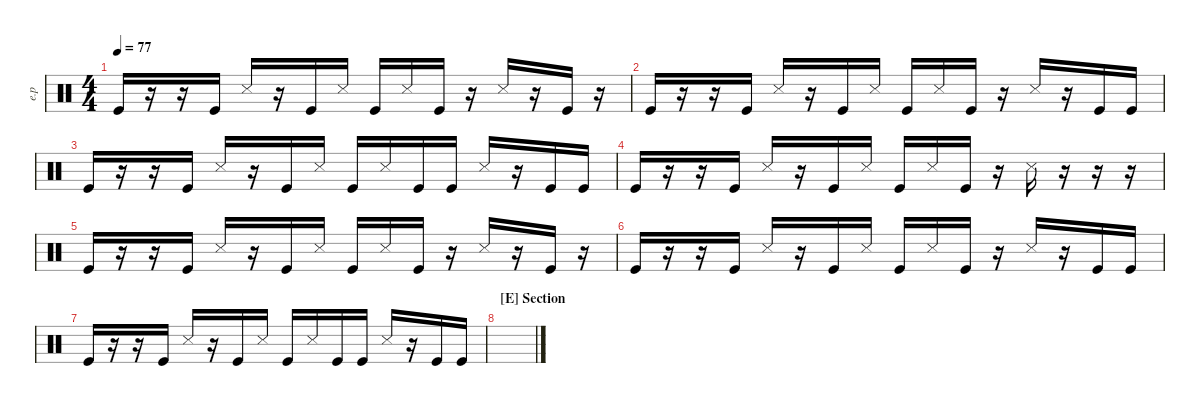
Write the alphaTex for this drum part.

\defaultSystemsLayout 4
\hideDynamics
\bracketExtendMode nobrackets
\otherSystemsTrackNameOrientation horizontal
\track ("Electric Percussion" "e.p") {instrument percussion}
\staff {score}
\articulation defaults
\ts (4 4)
\tempo 77
\clef neutral
\ks c "Kick (hit)".16{dy mf}
r.16 r.16 "Kick (hit)".16 "Snare (side stick) 3".16 r.16 "Kick (hit)".16 "Snare (side stick) 3".16 "Kick (hit)".16 "Snare (side stick) 3".16 "Kick (hit)".16 r.16 "Snare (side stick) 3".16 r.16 "Kick (hit)".16 r.16 |
"Kick (hit)".16 r.16 r.16 "Kick (hit)".16 "Snare (side stick) 3".16 r.16 "Kick (hit)".16 "Snare (side stick) 3".16 "Kick (hit)".16 "Snare (side stick) 3".16 "Kick (hit)".16 r.16 "Snare (side stick) 3".16 r.16 "Kick (hit)".16 "Kick (hit)".16 |
"Kick (hit)".16 r.16 r.16 "Kick (hit)".16 "Snare (side stick) 3".16 r.16 "Kick (hit)".16 "Snare (side stick) 3".16 "Kick (hit)".16 "Snare (side stick) 3".16 "Kick (hit)".16 "Kick (hit)".16 "Snare (side stick) 3".16 r.16 "Kick (hit)".16 "Kick (hit)".16 |
"Kick (hit)".16 r.16 r.16 "Kick (hit)".16 "Snare (side stick) 3".16 r.16 "Kick (hit)".16 "Snare (side stick) 3".16 "Kick (hit)".16 "Snare (side stick) 3".16 "Kick (hit)".16 r.16 "Snare (side stick) 3".16 r.16 r.16 r.16 |
"Kick (hit)".16 r.16 r.16 "Kick (hit)".16 "Snare (side stick) 3".16 r.16 "Kick (hit)".16 "Snare (side stick) 3".16 "Kick (hit)".16 "Snare (side stick) 3".16 "Kick (hit)".16 r.16 "Snare (side stick) 3".16 r.16 "Kick (hit)".16 r.16 |
"Kick (hit)".16 r.16 r.16 "Kick (hit)".16 "Snare (side stick) 3".16 r.16 "Kick (hit)".16 "Snare (side stick) 3".16 "Kick (hit)".16 "Snare (side stick) 3".16 "Kick (hit)".16 r.16 "Snare (side stick) 3".16 r.16 "Kick (hit)".16 "Kick (hit)".16 |
"Kick (hit)".16 r.16 r.16 "Kick (hit)".16 "Snare (side stick) 3".16 r.16 "Kick (hit)".16 "Snare (side stick) 3".16 "Kick (hit)".16 "Snare (side stick) 3".16 "Kick (hit)".16 "Kick (hit)".16 "Snare (side stick) 3".16 r.16 "Kick (hit)".16 "Kick (hit)".16 |
\section ("E" "Section")
